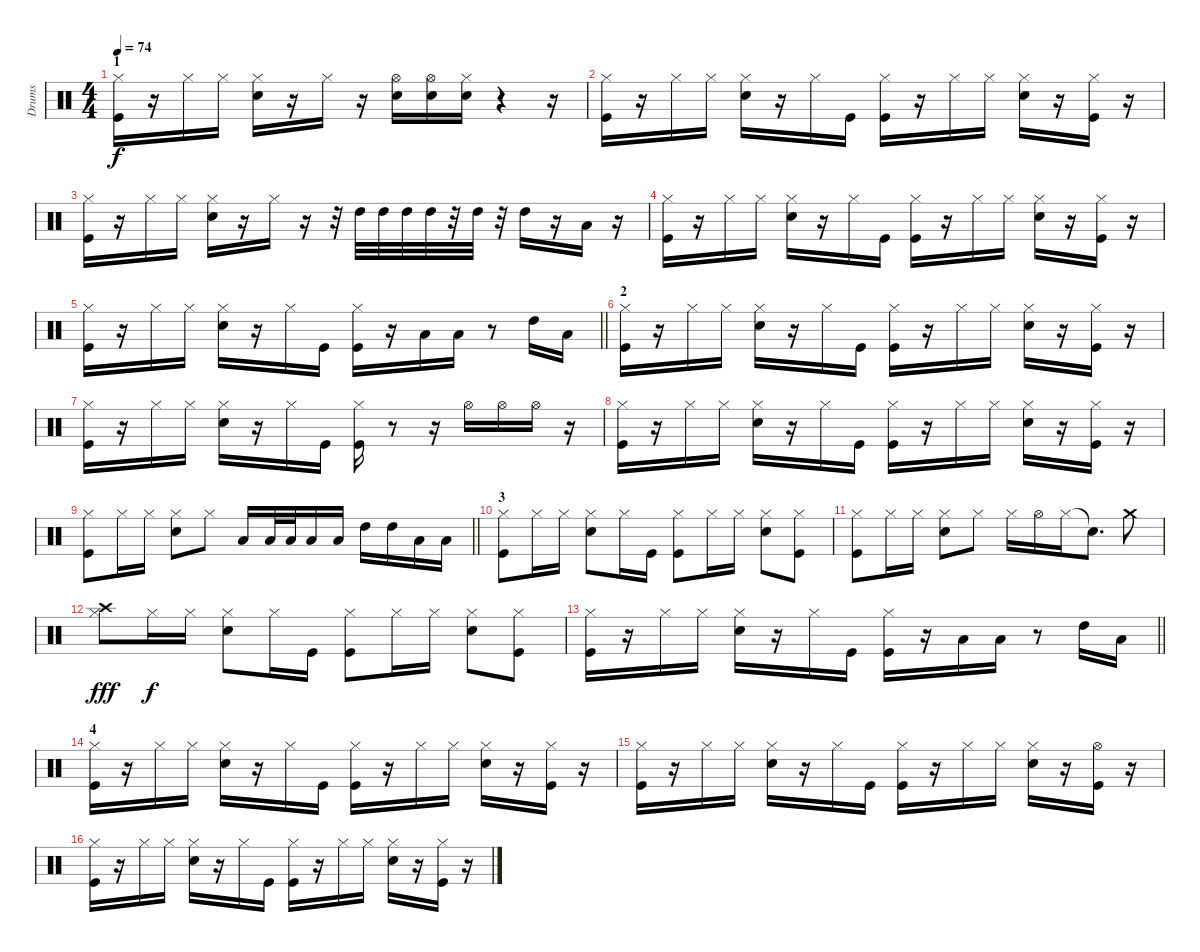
\track ("Drums" "Drums") {instrument percussion}
\staff {score}
\articulation defaults
\ts (4 4)
\section ("" "1")
\tempo 74
\clef neutral
\ks c
("Kick (hit)" "Hi-Hat (closed)").16{dy f} r.16 "Hi-Hat (closed)".16 "Hi-Hat (closed)".16 ("Snare (hit) 2" "Hi-Hat (closed)").16 r.16 "Hi-Hat (closed)".16 r.16 ("Hi-Hat (open)" "Snare (hit) 2").16 ("Hi-Hat (open)" "Snare (hit) 2").16 ("Hi-Hat (closed)" "Snare (hit) 2").16 r.4 r.16 |
("Kick (hit)" "Hi-Hat (closed)").16 r.16 "Hi-Hat (closed)".16 "Hi-Hat (closed)".16 ("Snare (hit) 2" "Hi-Hat (closed)").16 r.16 "Hi-Hat (closed)".16 "Kick (hit)".16 ("Kick (hit)" "Hi-Hat (closed)").16 r.16 "Hi-Hat (closed)".16 "Hi-Hat (closed)".16 ("Snare (hit) 2" "Hi-Hat (closed)").16 r.16 ("Kick (hit)" "Hi-Hat (closed)").16 r.16 |
("Kick (hit)" "Hi-Hat (closed)").16 r.16 "Hi-Hat (closed)".16 "Hi-Hat (closed)".16 ("Snare (hit) 2" "Hi-Hat (closed)").16 r.16 "Hi-Hat (closed)".16 r.16 r.32 "High Tom (hit)".32 "High Tom (hit)".32 "High Tom (hit)".32 "High Tom (hit)".32 r.32 "High Tom (hit)".32 r.32 "High Tom (hit)".16 r.16 "Low Floor Tom (hit)".16 r.16 |
("Kick (hit)" "Hi-Hat (closed)").16 r.16 "Hi-Hat (closed)".16 "Hi-Hat (closed)".16 ("Snare (hit) 2" "Hi-Hat (closed)").16 r.16 "Hi-Hat (closed)".16 "Kick (hit)".16 ("Kick (hit)" "Hi-Hat (closed)").16 r.16 "Hi-Hat (closed)".16 "Hi-Hat (closed)".16 ("Snare (hit) 2" "Hi-Hat (closed)").16 r.16 ("Kick (hit)" "Hi-Hat (closed)").16 r.16 |
\barLineRight lightlight
("Kick (hit)" "Hi-Hat (closed)").16 r.16 "Hi-Hat (closed)".16 "Hi-Hat (closed)".16 ("Snare (hit) 2" "Hi-Hat (closed)").16 r.16 "Hi-Hat (closed)".16 "Kick (hit)".16 ("Kick (hit)" "Hi-Hat (closed)").16 r.16 "Low Floor Tom (hit)".16 "Low Floor Tom (hit)".16 r.8 "High Tom (hit)".16 "Low Floor Tom (hit)".16 |
\section ("" "2")
("Kick (hit)" "Hi-Hat (closed)").16 r.16 "Hi-Hat (closed)".16 "Hi-Hat (closed)".16 ("Snare (hit) 2" "Hi-Hat (closed)").16 r.16 "Hi-Hat (closed)".16 "Kick (hit)".16 ("Kick (hit)" "Hi-Hat (closed)").16 r.16 "Hi-Hat (closed)".16 "Hi-Hat (closed)".16 ("Snare (hit) 2" "Hi-Hat (closed)").16 r.16 ("Kick (hit)" "Hi-Hat (closed)").16 r.16 |
("Kick (hit)" "Hi-Hat (closed)").16 r.16 "Hi-Hat (closed)".16 "Hi-Hat (closed)".16 ("Snare (hit) 2" "Hi-Hat (closed)").16 r.16 "Hi-Hat (closed)".16 "Kick (hit)".16 ("Kick (hit)" "Hi-Hat (closed)").16 r.8 r.16 "Hi-Hat (open)".16 "Hi-Hat (open)".16 "Hi-Hat (open)".16 r.16 |
("Kick (hit)" "Hi-Hat (closed)").16 r.16 "Hi-Hat (closed)".16 "Hi-Hat (closed)".16 ("Snare (hit) 2" "Hi-Hat (closed)").16 r.16 "Hi-Hat (closed)".16 "Kick (hit)".16 ("Kick (hit)" "Hi-Hat (closed)").16 r.16 "Hi-Hat (closed)".16 "Hi-Hat (closed)".16 ("Snare (hit) 2" "Hi-Hat (closed)").16 r.16 ("Kick (hit)" "Hi-Hat (closed)").16 r.16 |
\barLineRight lightlight
("Kick (hit)" "Hi-Hat (closed)").8 "Hi-Hat (closed)".16 "Hi-Hat (closed)".16 ("Snare (hit) 2" "Hi-Hat (closed)").8 "Hi-Hat (closed)".8 "Low Floor Tom (hit)".16 "Low Floor Tom (hit)".32 "Low Floor Tom (hit)".32 "Low Floor Tom (hit)".16 "Low Floor Tom (hit)".16 "High Tom (hit)".16 "High Tom (hit)".16 "Low Floor Tom (hit)".16 "Low Floor Tom (hit)".16 |
\section ("" "3")
("Kick (hit)" "Hi-Hat (closed)").8 "Hi-Hat (closed)".16 "Hi-Hat (closed)".16 ("Snare (hit) 2" "Hi-Hat (closed)").8 "Hi-Hat (closed)".16 "Kick (hit)".16 ("Kick (hit)" "Hi-Hat (closed)").8 "Hi-Hat (closed)".16 "Hi-Hat (closed)".16 ("Snare (hit) 2" "Hi-Hat (closed)").8 ("Kick (hit)" "Hi-Hat (closed)").8 |
("Kick (hit)" "Hi-Hat (closed)").8 "Hi-Hat (closed)".16 "Hi-Hat (closed)".16 ("Snare (hit) 2" "Hi-Hat (closed)").8 "Hi-Hat (closed)".8 "Hi-Hat (closed)".16 "Hi-Hat (open)".16 "Hi-Hat (closed)".16 "Snare (hit)"{t}.8{d} "Crash medium (hit)".8 |
("Crash high (hit)" "Hi-Hat (closed)").8{dy fff} "Hi-Hat (closed)".16{dy f} "Hi-Hat (closed)".16 ("Snare (hit) 2" "Hi-Hat (closed)").8 "Hi-Hat (closed)".16 "Kick (hit)".16 ("Kick (hit)" "Hi-Hat (closed)").8 "Hi-Hat (closed)".16 "Hi-Hat (closed)".16 ("Snare (hit) 2" "Hi-Hat (closed)").8 ("Kick (hit)" "Hi-Hat (closed)").8 |
\barLineRight lightlight
("Kick (hit)" "Hi-Hat (closed)").16 r.16 "Hi-Hat (closed)".16 "Hi-Hat (closed)".16 ("Snare (hit) 2" "Hi-Hat (closed)").16 r.16 "Hi-Hat (closed)".16 "Kick (hit)".16 ("Kick (hit)" "Hi-Hat (closed)").16 r.16 "Low Floor Tom (hit)".16 "Low Floor Tom (hit)".16 r.8 "High Tom (hit)".16 "Low Floor Tom (hit)".16 |
\section ("" "4")
("Kick (hit)" "Hi-Hat (closed)").16 r.16 "Hi-Hat (closed)".16 "Hi-Hat (closed)".16 ("Snare (hit) 2" "Hi-Hat (closed)").16 r.16 "Hi-Hat (closed)".16 "Kick (hit)".16 ("Kick (hit)" "Hi-Hat (closed)").16 r.16 "Hi-Hat (closed)".16 "Hi-Hat (closed)".16 ("Snare (hit) 2" "Hi-Hat (closed)").16 r.16 ("Kick (hit)" "Hi-Hat (closed)").16 r.16 |
("Kick (hit)" "Hi-Hat (closed)").16 r.16 "Hi-Hat (closed)".16 "Hi-Hat (closed)".16 ("Snare (hit) 2" "Hi-Hat (closed)").16 r.16 "Hi-Hat (closed)".16 "Kick (hit)".16 ("Kick (hit)" "Hi-Hat (closed)").16 r.16 "Hi-Hat (closed)".16 "Hi-Hat (closed)".16 ("Snare (hit) 2" "Hi-Hat (closed)").16 r.16 ("Kick (hit)" "Hi-Hat (open)").16 r.16 |
("Kick (hit)" "Hi-Hat (closed)").16 r.16 "Hi-Hat (closed)".16 "Hi-Hat (closed)".16 ("Snare (hit) 2" "Hi-Hat (closed)").16 r.16 "Hi-Hat (closed)".16 "Kick (hit)".16 ("Kick (hit)" "Hi-Hat (closed)").16 r.16 "Hi-Hat (closed)".16 "Hi-Hat (closed)".16 ("Snare (hit) 2" "Hi-Hat (closed)").16 r.16 ("Kick (hit)" "Hi-Hat (closed)").16 r.16
